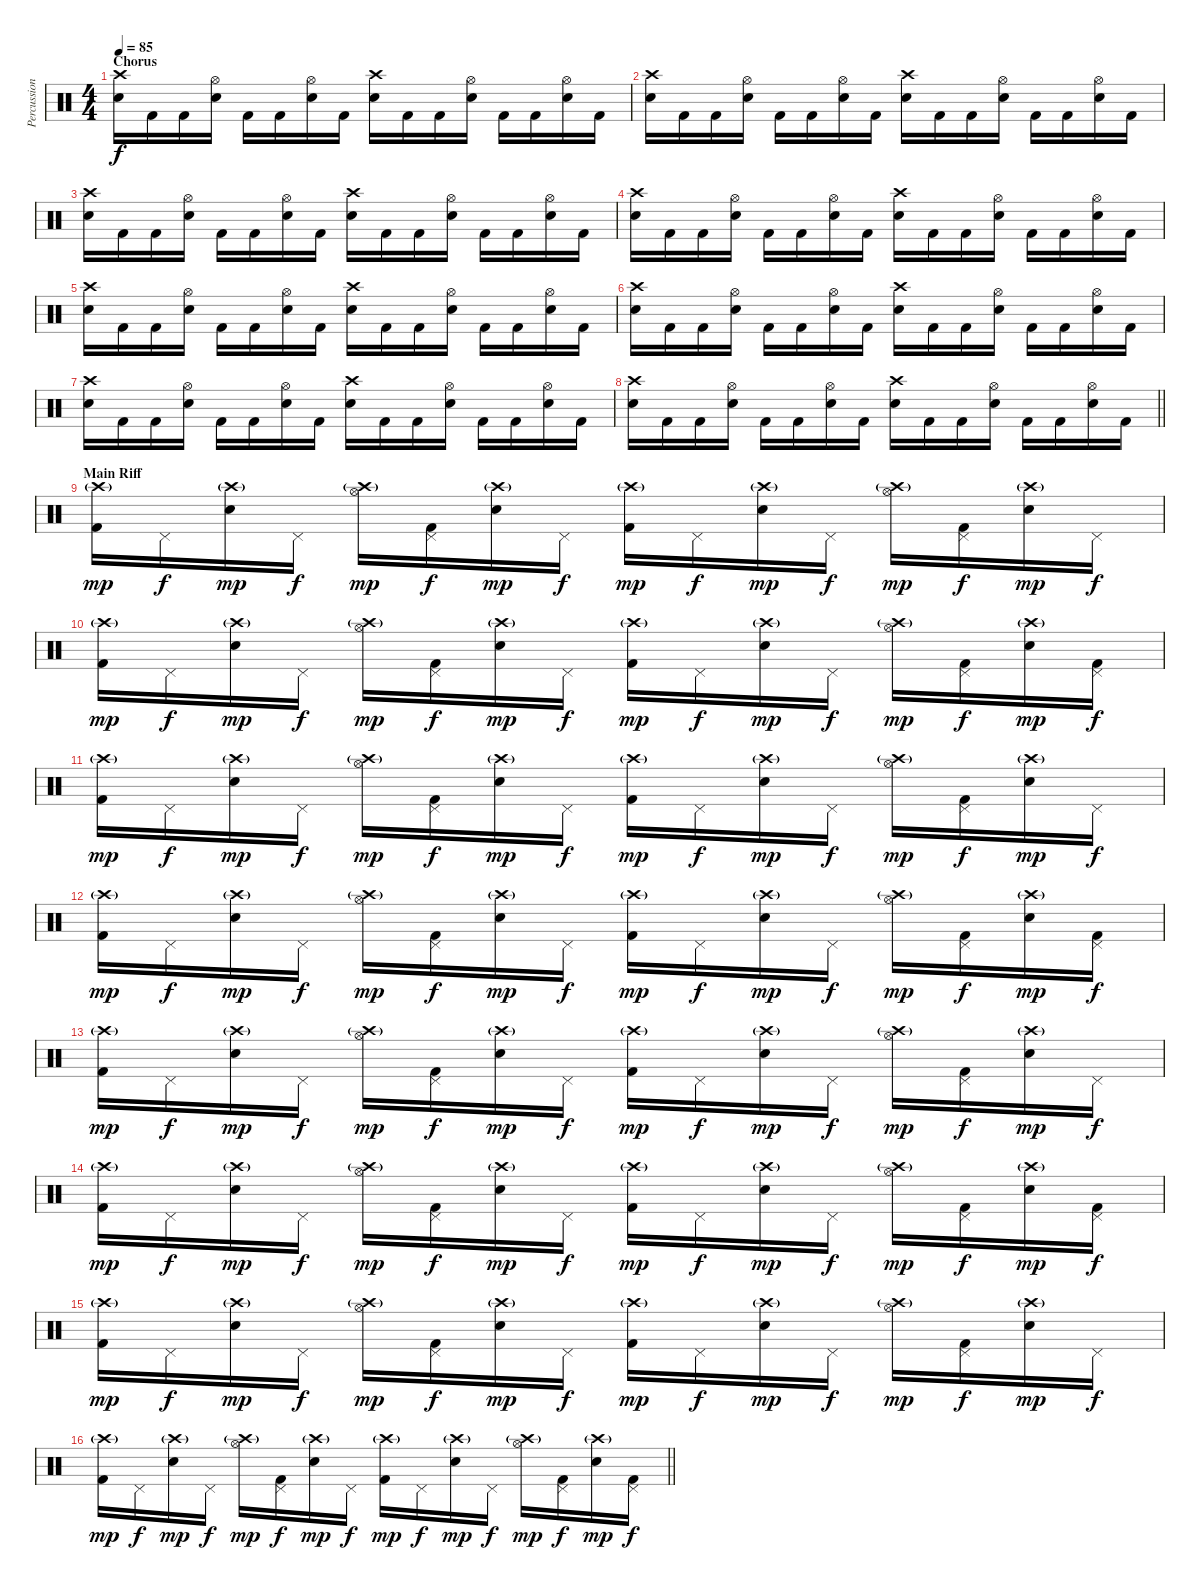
\track ("Percussion" "Percussion") {instrument percussion}
\staff {score}
\articulation defaults
\ts (4 4)
\section ("" "Chorus")
\tempo 85
\clef neutral
\ks c
("Crash high (hit)" "Snare (hit) 2").16{dy f} "Kick (hit) 2".16 "Kick (hit) 2".16 ("Hi-Hat (open)" "Snare (hit) 2").16 "Kick (hit) 2".16 "Kick (hit) 2".16 ("Hi-Hat (open)" "Snare (hit) 2").16 "Kick (hit) 2".16 ("Crash high (hit)" "Snare (hit) 2").16 "Kick (hit) 2".16 "Kick (hit) 2".16 ("Hi-Hat (open)" "Snare (hit) 2").16 "Kick (hit) 2".16 "Kick (hit) 2".16 ("Hi-Hat (open)" "Snare (hit) 2").16 "Kick (hit) 2".16 |
("Crash high (hit)" "Snare (hit) 2").16 "Kick (hit) 2".16 "Kick (hit) 2".16 ("Hi-Hat (open)" "Snare (hit) 2").16 "Kick (hit) 2".16 "Kick (hit) 2".16 ("Hi-Hat (open)" "Snare (hit) 2").16 "Kick (hit) 2".16 ("Crash high (hit)" "Snare (hit) 2").16 "Kick (hit) 2".16 "Kick (hit) 2".16 ("Hi-Hat (open)" "Snare (hit) 2").16 "Kick (hit) 2".16 "Kick (hit) 2".16 ("Hi-Hat (open)" "Snare (hit) 2").16 "Kick (hit) 2".16 |
("Crash high (hit)" "Snare (hit) 2").16 "Kick (hit) 2".16 "Kick (hit) 2".16 ("Hi-Hat (open)" "Snare (hit) 2").16 "Kick (hit) 2".16 "Kick (hit) 2".16 ("Hi-Hat (open)" "Snare (hit) 2").16 "Kick (hit) 2".16 ("Crash high (hit)" "Snare (hit) 2").16 "Kick (hit) 2".16 "Kick (hit) 2".16 ("Hi-Hat (open)" "Snare (hit) 2").16 "Kick (hit) 2".16 "Kick (hit) 2".16 ("Hi-Hat (open)" "Snare (hit) 2").16 "Kick (hit) 2".16 |
("Crash high (hit)" "Snare (hit) 2").16 "Kick (hit) 2".16 "Kick (hit) 2".16 ("Hi-Hat (open)" "Snare (hit) 2").16 "Kick (hit) 2".16 "Kick (hit) 2".16 ("Hi-Hat (open)" "Snare (hit) 2").16 "Kick (hit) 2".16 ("Crash high (hit)" "Snare (hit) 2").16 "Kick (hit) 2".16 "Kick (hit) 2".16 ("Hi-Hat (open)" "Snare (hit) 2").16 "Kick (hit) 2".16 "Kick (hit) 2".16 ("Hi-Hat (open)" "Snare (hit) 2").16 "Kick (hit) 2".16 |
("Crash high (hit)" "Snare (hit) 2").16 "Kick (hit) 2".16 "Kick (hit) 2".16 ("Hi-Hat (open)" "Snare (hit) 2").16 "Kick (hit) 2".16 "Kick (hit) 2".16 ("Hi-Hat (open)" "Snare (hit) 2").16 "Kick (hit) 2".16 ("Crash high (hit)" "Snare (hit) 2").16 "Kick (hit) 2".16 "Kick (hit) 2".16 ("Hi-Hat (open)" "Snare (hit) 2").16 "Kick (hit) 2".16 "Kick (hit) 2".16 ("Hi-Hat (open)" "Snare (hit) 2").16 "Kick (hit) 2".16 |
("Crash high (hit)" "Snare (hit) 2").16 "Kick (hit) 2".16 "Kick (hit) 2".16 ("Hi-Hat (open)" "Snare (hit) 2").16 "Kick (hit) 2".16 "Kick (hit) 2".16 ("Hi-Hat (open)" "Snare (hit) 2").16 "Kick (hit) 2".16 ("Crash high (hit)" "Snare (hit) 2").16 "Kick (hit) 2".16 "Kick (hit) 2".16 ("Hi-Hat (open)" "Snare (hit) 2").16 "Kick (hit) 2".16 "Kick (hit) 2".16 ("Hi-Hat (open)" "Snare (hit) 2").16 "Kick (hit) 2".16 |
("Crash high (hit)" "Snare (hit) 2").16 "Kick (hit) 2".16 "Kick (hit) 2".16 ("Hi-Hat (open)" "Snare (hit) 2").16 "Kick (hit) 2".16 "Kick (hit) 2".16 ("Hi-Hat (open)" "Snare (hit) 2").16 "Kick (hit) 2".16 ("Crash high (hit)" "Snare (hit) 2").16 "Kick (hit) 2".16 "Kick (hit) 2".16 ("Hi-Hat (open)" "Snare (hit) 2").16 "Kick (hit) 2".16 "Kick (hit) 2".16 ("Hi-Hat (open)" "Snare (hit) 2").16 "Kick (hit) 2".16 |
\barLineRight lightlight
("Crash high (hit)" "Snare (hit) 2").16 "Kick (hit) 2".16 "Kick (hit) 2".16 ("Hi-Hat (open)" "Snare (hit) 2").16 "Kick (hit) 2".16 "Kick (hit) 2".16 ("Hi-Hat (open)" "Snare (hit) 2").16 "Kick (hit) 2".16 ("Crash high (hit)" "Snare (hit) 2").16 "Kick (hit) 2".16 "Kick (hit) 2".16 ("Hi-Hat (open)" "Snare (hit) 2").16 "Kick (hit) 2".16 "Kick (hit) 2".16 ("Hi-Hat (open)" "Snare (hit) 2").16 "Kick (hit) 2".16 |
\section ("" "Main Riff")
("Crash high (hit)"{g} "Kick (hit) 2").16{dy mp} "Pedal Hi-Hat (hit)".16{dy f} ("Crash high (hit)"{g} "Snare (hit) 2").16{dy mp} "Pedal Hi-Hat (hit)".16{dy f} ("Crash high (hit)"{g} "Hi-Hat (open)").16{dy mp} ("Pedal Hi-Hat (hit)" "Kick (hit) 2").16{dy f} ("Crash high (hit)"{g} "Snare (hit) 2").16{dy mp} "Pedal Hi-Hat (hit)".16{dy f} ("Crash high (hit)"{g} "Kick (hit) 2").16{dy mp} "Pedal Hi-Hat (hit)".16{dy f} ("Crash high (hit)"{g} "Snare (hit) 2").16{dy mp} "Pedal Hi-Hat (hit)".16{dy f} ("Crash high (hit)"{g} "Hi-Hat (open)").16{dy mp} ("Pedal Hi-Hat (hit)" "Kick (hit) 2").16{dy f} ("Crash high (hit)"{g} "Snare (hit) 2").16{dy mp} "Pedal Hi-Hat (hit)".16{dy f} |
("Crash high (hit)"{g} "Kick (hit) 2").16{dy mp} "Pedal Hi-Hat (hit)".16{dy f} ("Crash high (hit)"{g} "Snare (hit) 2").16{dy mp} "Pedal Hi-Hat (hit)".16{dy f} ("Crash high (hit)"{g} "Hi-Hat (open)").16{dy mp} ("Pedal Hi-Hat (hit)" "Kick (hit) 2").16{dy f} ("Crash high (hit)"{g} "Snare (hit) 2").16{dy mp} "Pedal Hi-Hat (hit)".16{dy f} ("Crash high (hit)"{g} "Kick (hit) 2").16{dy mp} "Pedal Hi-Hat (hit)".16{dy f} ("Crash high (hit)"{g} "Snare (hit) 2").16{dy mp} "Pedal Hi-Hat (hit)".16{dy f} ("Crash high (hit)"{g} "Hi-Hat (open)").16{dy mp} ("Pedal Hi-Hat (hit)" "Kick (hit) 2").16{dy f} ("Crash high (hit)"{g} "Snare (hit) 2").16{dy mp} ("Pedal Hi-Hat (hit)" "Kick (hit) 2").16{dy f} |
("Crash high (hit)"{g} "Kick (hit) 2").16{dy mp} "Pedal Hi-Hat (hit)".16{dy f} ("Crash high (hit)"{g} "Snare (hit) 2").16{dy mp} "Pedal Hi-Hat (hit)".16{dy f} ("Crash high (hit)"{g} "Hi-Hat (open)").16{dy mp} ("Pedal Hi-Hat (hit)" "Kick (hit) 2").16{dy f} ("Crash high (hit)"{g} "Snare (hit) 2").16{dy mp} "Pedal Hi-Hat (hit)".16{dy f} ("Crash high (hit)"{g} "Kick (hit) 2").16{dy mp} "Pedal Hi-Hat (hit)".16{dy f} ("Crash high (hit)"{g} "Snare (hit) 2").16{dy mp} "Pedal Hi-Hat (hit)".16{dy f} ("Crash high (hit)"{g} "Hi-Hat (open)").16{dy mp} ("Pedal Hi-Hat (hit)" "Kick (hit) 2").16{dy f} ("Crash high (hit)"{g} "Snare (hit) 2").16{dy mp} "Pedal Hi-Hat (hit)".16{dy f} |
("Crash high (hit)"{g} "Kick (hit) 2").16{dy mp} "Pedal Hi-Hat (hit)".16{dy f} ("Crash high (hit)"{g} "Snare (hit) 2").16{dy mp} "Pedal Hi-Hat (hit)".16{dy f} ("Crash high (hit)"{g} "Hi-Hat (open)").16{dy mp} ("Pedal Hi-Hat (hit)" "Kick (hit) 2").16{dy f} ("Crash high (hit)"{g} "Snare (hit) 2").16{dy mp} "Pedal Hi-Hat (hit)".16{dy f} ("Crash high (hit)"{g} "Kick (hit) 2").16{dy mp} "Pedal Hi-Hat (hit)".16{dy f} ("Crash high (hit)"{g} "Snare (hit) 2").16{dy mp} "Pedal Hi-Hat (hit)".16{dy f} ("Crash high (hit)"{g} "Hi-Hat (open)").16{dy mp} ("Pedal Hi-Hat (hit)" "Kick (hit) 2").16{dy f} ("Crash high (hit)"{g} "Snare (hit) 2").16{dy mp} ("Pedal Hi-Hat (hit)" "Kick (hit) 2").16{dy f} |
("Crash high (hit)"{g} "Kick (hit) 2").16{dy mp} "Pedal Hi-Hat (hit)".16{dy f} ("Crash high (hit)"{g} "Snare (hit) 2").16{dy mp} "Pedal Hi-Hat (hit)".16{dy f} ("Crash high (hit)"{g} "Hi-Hat (open)").16{dy mp} ("Pedal Hi-Hat (hit)" "Kick (hit) 2").16{dy f} ("Crash high (hit)"{g} "Snare (hit) 2").16{dy mp} "Pedal Hi-Hat (hit)".16{dy f} ("Crash high (hit)"{g} "Kick (hit) 2").16{dy mp} "Pedal Hi-Hat (hit)".16{dy f} ("Crash high (hit)"{g} "Snare (hit) 2").16{dy mp} "Pedal Hi-Hat (hit)".16{dy f} ("Crash high (hit)"{g} "Hi-Hat (open)").16{dy mp} ("Pedal Hi-Hat (hit)" "Kick (hit) 2").16{dy f} ("Crash high (hit)"{g} "Snare (hit) 2").16{dy mp} "Pedal Hi-Hat (hit)".16{dy f} |
("Crash high (hit)"{g} "Kick (hit) 2").16{dy mp} "Pedal Hi-Hat (hit)".16{dy f} ("Crash high (hit)"{g} "Snare (hit) 2").16{dy mp} "Pedal Hi-Hat (hit)".16{dy f} ("Crash high (hit)"{g} "Hi-Hat (open)").16{dy mp} ("Pedal Hi-Hat (hit)" "Kick (hit) 2").16{dy f} ("Crash high (hit)"{g} "Snare (hit) 2").16{dy mp} "Pedal Hi-Hat (hit)".16{dy f} ("Crash high (hit)"{g} "Kick (hit) 2").16{dy mp} "Pedal Hi-Hat (hit)".16{dy f} ("Crash high (hit)"{g} "Snare (hit) 2").16{dy mp} "Pedal Hi-Hat (hit)".16{dy f} ("Crash high (hit)"{g} "Hi-Hat (open)").16{dy mp} ("Pedal Hi-Hat (hit)" "Kick (hit) 2").16{dy f} ("Crash high (hit)"{g} "Snare (hit) 2").16{dy mp} ("Pedal Hi-Hat (hit)" "Kick (hit) 2").16{dy f} |
("Crash high (hit)"{g} "Kick (hit) 2").16{dy mp} "Pedal Hi-Hat (hit)".16{dy f} ("Crash high (hit)"{g} "Snare (hit) 2").16{dy mp} "Pedal Hi-Hat (hit)".16{dy f} ("Crash high (hit)"{g} "Hi-Hat (open)").16{dy mp} ("Pedal Hi-Hat (hit)" "Kick (hit) 2").16{dy f} ("Crash high (hit)"{g} "Snare (hit) 2").16{dy mp} "Pedal Hi-Hat (hit)".16{dy f} ("Crash high (hit)"{g} "Kick (hit) 2").16{dy mp} "Pedal Hi-Hat (hit)".16{dy f} ("Crash high (hit)"{g} "Snare (hit) 2").16{dy mp} "Pedal Hi-Hat (hit)".16{dy f} ("Crash high (hit)"{g} "Hi-Hat (open)").16{dy mp} ("Pedal Hi-Hat (hit)" "Kick (hit) 2").16{dy f} ("Crash high (hit)"{g} "Snare (hit) 2").16{dy mp} "Pedal Hi-Hat (hit)".16{dy f} |
\barLineRight lightlight
("Crash high (hit)"{g} "Kick (hit) 2").16{dy mp} "Pedal Hi-Hat (hit)".16{dy f} ("Crash high (hit)"{g} "Snare (hit) 2").16{dy mp} "Pedal Hi-Hat (hit)".16{dy f} ("Crash high (hit)"{g} "Hi-Hat (open)").16{dy mp} ("Pedal Hi-Hat (hit)" "Kick (hit) 2").16{dy f} ("Crash high (hit)"{g} "Snare (hit) 2").16{dy mp} "Pedal Hi-Hat (hit)".16{dy f} ("Crash high (hit)"{g} "Kick (hit) 2").16{dy mp} "Pedal Hi-Hat (hit)".16{dy f} ("Crash high (hit)"{g} "Snare (hit) 2").16{dy mp} "Pedal Hi-Hat (hit)".16{dy f} ("Crash high (hit)"{g} "Hi-Hat (open)").16{dy mp} ("Pedal Hi-Hat (hit)" "Kick (hit) 2").16{dy f} ("Crash high (hit)"{g} "Snare (hit) 2").16{dy mp} ("Pedal Hi-Hat (hit)" "Kick (hit) 2").16{dy f}
